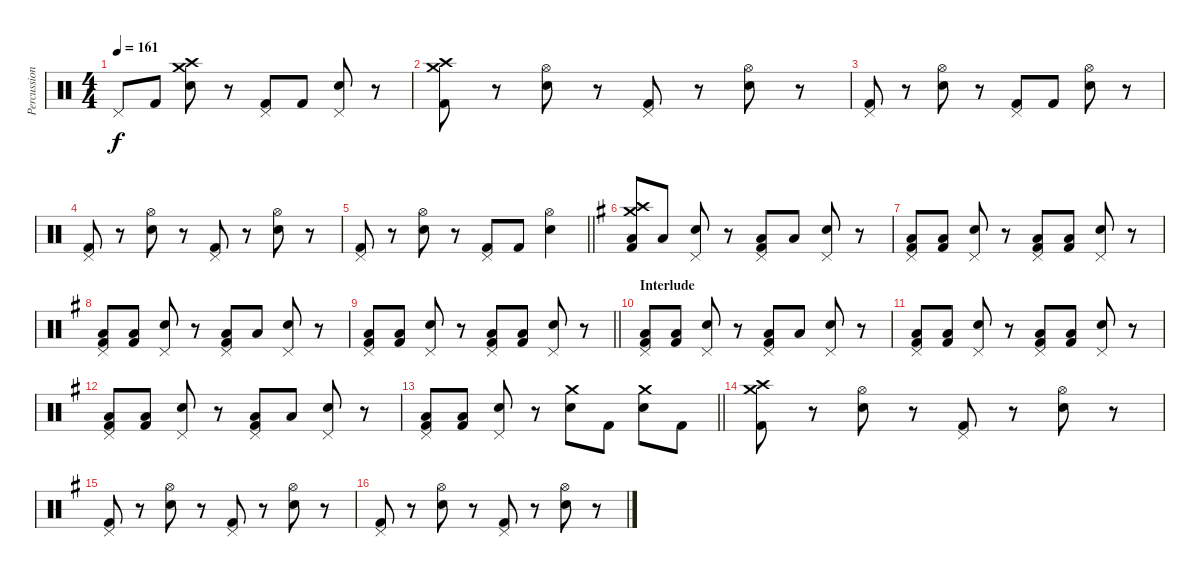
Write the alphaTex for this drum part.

\track ("Percussion" "Percussion") {instrument percussion}
\staff {score}
\articulation defaults
\ts (4 4)
\tempo 161
\clef neutral
\ks c "Pedal Hi-Hat (hit)".8{dy f} "Kick (hit) 2".8
("Crash medium (hit)" "Crash high (hit)" "Electric Snare (hit)").8 r.8 ("Pedal Hi-Hat (hit)" "Kick (hit) 2").8 "Kick (hit) 2".8 ("Pedal Hi-Hat (hit)" "Electric Snare (hit)").8 r.8 |
("Crash high (hit)" "Crash medium (hit)" "Kick (hit) 2").8 r.8 ("Hi-Hat (open)" "Electric Snare (hit)").8 r.8 ("Pedal Hi-Hat (hit)" "Kick (hit) 2").8 r.8 ("Hi-Hat (open)" "Electric Snare (hit)").8 r.8 |
("Pedal Hi-Hat (hit)" "Kick (hit) 2").8 r.8 ("Hi-Hat (open)" "Electric Snare (hit)").8 r.8 ("Pedal Hi-Hat (hit)" "Kick (hit) 2").8 "Kick (hit) 2".8 ("Hi-Hat (open)" "Electric Snare (hit)").8 r.8 |
("Pedal Hi-Hat (hit)" "Kick (hit) 2").8 r.8 ("Hi-Hat (open)" "Electric Snare (hit)").8 r.8 ("Pedal Hi-Hat (hit)" "Kick (hit) 2").8 r.8 ("Hi-Hat (open)" "Electric Snare (hit)").8 r.8 |
\barLineRight lightlight
("Pedal Hi-Hat (hit)" "Kick (hit) 2").8 r.8 ("Hi-Hat (open)" "Electric Snare (hit)").8 r.8 ("Pedal Hi-Hat (hit)" "Kick (hit) 2").8 "Kick (hit) 2".8 ("Hi-Hat (open)" "Electric Snare (hit)").4 |
\ks g
("Crash high (hit)" "Crash medium (hit)" "Low Floor Tom (hit)" "Kick (hit) 2").8 "Low Floor Tom (hit)".8 ("Pedal Hi-Hat (hit)" "Electric Snare (hit)").8 r.8 ("Pedal Hi-Hat (hit)" "Low Floor Tom (hit)" "Kick (hit) 2").8 "Low Floor Tom (hit)".8 ("Pedal Hi-Hat (hit)" "Electric Snare (hit)").8 r.8 |
("Pedal Hi-Hat (hit)" "Low Floor Tom (hit)" "Kick (hit) 2").8 ("Low Floor Tom (hit)" "Kick (hit) 2").8 ("Pedal Hi-Hat (hit)" "Electric Snare (hit)").8 r.8 ("Pedal Hi-Hat (hit)" "Low Floor Tom (hit)" "Kick (hit) 2").8 ("Low Floor Tom (hit)" "Kick (hit) 2").8 ("Pedal Hi-Hat (hit)" "Electric Snare (hit)").8 r.8 |
("Pedal Hi-Hat (hit)" "Low Floor Tom (hit)" "Kick (hit) 2").8 ("Low Floor Tom (hit)" "Kick (hit) 2").8 ("Pedal Hi-Hat (hit)" "Electric Snare (hit)").8 r.8 ("Pedal Hi-Hat (hit)" "Low Floor Tom (hit)" "Kick (hit) 2").8 "Low Floor Tom (hit)".8 ("Pedal Hi-Hat (hit)" "Electric Snare (hit)").8 r.8 |
\barLineRight lightlight
("Pedal Hi-Hat (hit)" "Low Floor Tom (hit)" "Kick (hit) 2").8 ("Low Floor Tom (hit)" "Kick (hit) 2").8 ("Pedal Hi-Hat (hit)" "Electric Snare (hit)").8 r.8 ("Pedal Hi-Hat (hit)" "Low Floor Tom (hit)" "Kick (hit) 2").8 ("Low Floor Tom (hit)" "Kick (hit) 2").8 ("Pedal Hi-Hat (hit)" "Electric Snare (hit)").8 r.8 |
\section ("" "Interlude")
("Pedal Hi-Hat (hit)" "Low Floor Tom (hit)" "Kick (hit) 2").8 ("Low Floor Tom (hit)" "Kick (hit) 2").8 ("Pedal Hi-Hat (hit)" "Electric Snare (hit)").8 r.8 ("Pedal Hi-Hat (hit)" "Low Floor Tom (hit)" "Kick (hit) 2").8 "Low Floor Tom (hit)".8 ("Pedal Hi-Hat (hit)" "Electric Snare (hit)").8 r.8 |
("Pedal Hi-Hat (hit)" "Low Floor Tom (hit)" "Kick (hit) 2").8 ("Low Floor Tom (hit)" "Kick (hit) 2").8 ("Pedal Hi-Hat (hit)" "Electric Snare (hit)").8 r.8 ("Pedal Hi-Hat (hit)" "Low Floor Tom (hit)" "Kick (hit) 2").8 ("Low Floor Tom (hit)" "Kick (hit) 2").8 ("Pedal Hi-Hat (hit)" "Electric Snare (hit)").8 r.8 |
("Pedal Hi-Hat (hit)" "Low Floor Tom (hit)" "Kick (hit) 2").8 ("Low Floor Tom (hit)" "Kick (hit) 2").8 ("Pedal Hi-Hat (hit)" "Electric Snare (hit)").8 r.8 ("Pedal Hi-Hat (hit)" "Low Floor Tom (hit)" "Kick (hit) 2").8 "Low Floor Tom (hit)".8 ("Pedal Hi-Hat (hit)" "Electric Snare (hit)").8 r.8 |
\barLineRight lightlight
("Pedal Hi-Hat (hit)" "Low Floor Tom (hit)" "Kick (hit) 2").8 ("Low Floor Tom (hit)" "Kick (hit) 2").8 ("Pedal Hi-Hat (hit)" "Electric Snare (hit)").8 r.8 ("Crash medium (hit)" "Electric Snare (hit)").8 "Kick (hit) 2".8 ("Crash medium (hit)" "Electric Snare (hit)").8 "Kick (hit) 2".8 |
("Crash high (hit)" "Crash medium (hit)" "Kick (hit) 2").8 r.8 ("Hi-Hat (open)" "Electric Snare (hit)").8 r.8 ("Pedal Hi-Hat (hit)" "Kick (hit) 2").8 r.8 ("Hi-Hat (open)" "Electric Snare (hit)").8 r.8 |
("Pedal Hi-Hat (hit)" "Kick (hit) 2").8 r.8 ("Hi-Hat (open)" "Electric Snare (hit)").8 r.8 ("Pedal Hi-Hat (hit)" "Kick (hit) 2").8 r.8 ("Hi-Hat (open)" "Electric Snare (hit)").8 r.8 |
("Pedal Hi-Hat (hit)" "Kick (hit) 2").8 r.8 ("Hi-Hat (open)" "Electric Snare (hit)").8 r.8 ("Pedal Hi-Hat (hit)" "Kick (hit) 2").8 r.8 ("Hi-Hat (open)" "Electric Snare (hit)").8 r.8
